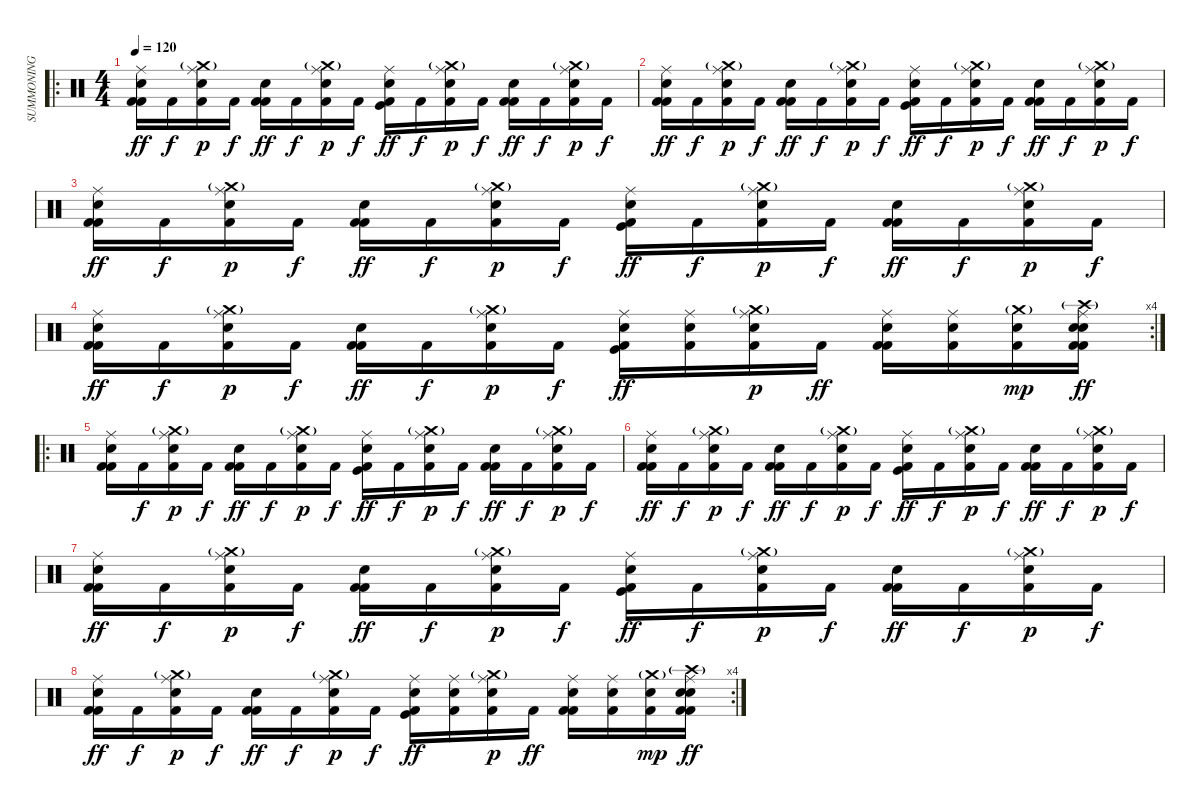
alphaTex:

\track ("SUMMONING" "SUMMONING") {instrument percussion}
\staff {score}
\articulation defaults
\ro
\ts (4 4)
\tempo 120
\clef neutral
\ks c
("Electric Snare (hit)" "Ride (middle)" "Kick (hit) 2" "Kick (hit) 2").16{dy ff} "Kick (hit) 2".16{dy f} ("Snare (hit) 2" "Crash medium (hit)"{g} "Ride (middle)" "Kick (hit) 2").16{dy p} "Kick (hit) 2".16{dy f} ("Electric Snare (hit)" "Kick (hit) 2" "Kick (hit) 2").16{dy ff} "Kick (hit) 2".16{dy f} ("Snare (hit) 2" "Crash medium (hit)"{g} "Ride (middle)" "Kick (hit) 2").16{dy p} "Kick (hit) 2".16{dy f} ("Electric Snare (hit)" "Ride (middle)" "Kick (hit)" "Kick (hit) 2").16{dy ff} "Kick (hit) 2".16{dy f} ("Snare (hit) 2" "Crash medium (hit)"{g} "Ride (middle)" "Kick (hit) 2").16{dy p} "Kick (hit) 2".16{dy f} ("Electric Snare (hit)" "Kick (hit) 2" "Kick (hit) 2").16{dy ff} "Kick (hit) 2".16{dy f} ("Snare (hit) 2" "Crash medium (hit)"{g} "Ride (middle)" "Kick (hit) 2").16{dy p} "Kick (hit) 2".16{dy f} |
("Electric Snare (hit)" "Ride (middle)" "Kick (hit) 2" "Kick (hit) 2").16{dy ff} "Kick (hit) 2".16{dy f} ("Snare (hit) 2" "Crash medium (hit)"{g} "Ride (middle)" "Kick (hit) 2").16{dy p} "Kick (hit) 2".16{dy f} ("Electric Snare (hit)" "Kick (hit) 2" "Kick (hit) 2").16{dy ff} "Kick (hit) 2".16{dy f} ("Snare (hit) 2" "Crash medium (hit)"{g} "Ride (middle)" "Kick (hit) 2").16{dy p} "Kick (hit) 2".16{dy f} ("Electric Snare (hit)" "Ride (middle)" "Kick (hit)" "Kick (hit) 2").16{dy ff} "Kick (hit) 2".16{dy f} ("Snare (hit) 2" "Crash medium (hit)"{g} "Ride (middle)" "Kick (hit) 2").16{dy p} "Kick (hit) 2".16{dy f} ("Electric Snare (hit)" "Kick (hit) 2" "Kick (hit) 2").16{dy ff} "Kick (hit) 2".16{dy f} ("Snare (hit) 2" "Crash medium (hit)"{g} "Ride (middle)" "Kick (hit) 2").16{dy p} "Kick (hit) 2".16{dy f} |
("Electric Snare (hit)" "Ride (middle)" "Kick (hit) 2" "Kick (hit) 2").16{dy ff} "Kick (hit) 2".16{dy f} ("Snare (hit) 2" "Crash medium (hit)"{g} "Ride (middle)" "Kick (hit) 2").16{dy p} "Kick (hit) 2".16{dy f} ("Electric Snare (hit)" "Kick (hit) 2" "Kick (hit) 2").16{dy ff} "Kick (hit) 2".16{dy f} ("Snare (hit) 2" "Crash medium (hit)"{g} "Ride (middle)" "Kick (hit) 2").16{dy p} "Kick (hit) 2".16{dy f} ("Electric Snare (hit)" "Ride (middle)" "Kick (hit)" "Kick (hit) 2").16{dy ff} "Kick (hit) 2".16{dy f} ("Snare (hit) 2" "Crash medium (hit)"{g} "Ride (middle)" "Kick (hit) 2").16{dy p} "Kick (hit) 2".16{dy f} ("Electric Snare (hit)" "Kick (hit) 2" "Kick (hit) 2").16{dy ff} "Kick (hit) 2".16{dy f} ("Snare (hit) 2" "Crash medium (hit)"{g} "Ride (middle)" "Kick (hit) 2").16{dy p} "Kick (hit) 2".16{dy f} |
\rc 4
("Electric Snare (hit)" "Ride (middle)" "Kick (hit) 2" "Kick (hit) 2").16{dy ff} "Kick (hit) 2".16{dy f} ("Snare (hit) 2" "Crash medium (hit)"{g} "Ride (middle)" "Kick (hit) 2").16{dy p} "Kick (hit) 2".16{dy f} ("Electric Snare (hit)" "Kick (hit) 2" "Kick (hit) 2").16{dy ff} "Kick (hit) 2".16{dy f} ("Snare (hit) 2" "Crash medium (hit)"{g} "Ride (middle)" "Kick (hit) 2").16{dy p} "Kick (hit) 2".16{dy f} ("Electric Snare (hit)" "Ride (middle)" "Kick (hit)" "Kick (hit) 2").16{dy ff} ("Electric Snare (hit)" "Ride (middle)" "Kick (hit) 2").16 ("Snare (hit) 2" "Crash medium (hit)"{g} "Ride (middle)" "Kick (hit) 2").16{dy p} "Kick (hit) 2".16{dy ff} ("Electric Snare (hit)" "Ride (middle)" "Kick (hit) 2" "Kick (hit) 2").16 ("Electric Snare (hit)" "Ride (middle)" "Kick (hit) 2").16 ("Snare (hit) 2" "Crash medium (hit)"{g} "Kick (hit) 2").16{dy mp} ("Snare (hit) 2" "Crash high (hit)"{g} "Electric Snare (hit)" "Ride (middle)" "Kick (hit) 2" "Kick (hit) 2").16{dy ff} |
\ro
("Electric Snare (hit)" "Ride (middle)" "Kick (hit) 2" "Kick (hit) 2").16 "Kick (hit) 2".16{dy f} ("Snare (hit) 2" "Crash medium (hit)"{g} "Ride (middle)" "Kick (hit) 2").16{dy p} "Kick (hit) 2".16{dy f} ("Electric Snare (hit)" "Kick (hit) 2" "Kick (hit) 2").16{dy ff} "Kick (hit) 2".16{dy f} ("Snare (hit) 2" "Crash medium (hit)"{g} "Ride (middle)" "Kick (hit) 2").16{dy p} "Kick (hit) 2".16{dy f} ("Electric Snare (hit)" "Ride (middle)" "Kick (hit)" "Kick (hit) 2").16{dy ff} "Kick (hit) 2".16{dy f} ("Snare (hit) 2" "Crash medium (hit)"{g} "Ride (middle)" "Kick (hit) 2").16{dy p} "Kick (hit) 2".16{dy f} ("Electric Snare (hit)" "Kick (hit) 2" "Kick (hit) 2").16{dy ff} "Kick (hit) 2".16{dy f} ("Snare (hit) 2" "Crash medium (hit)"{g} "Ride (middle)" "Kick (hit) 2").16{dy p} "Kick (hit) 2".16{dy f} |
("Electric Snare (hit)" "Ride (middle)" "Kick (hit) 2" "Kick (hit) 2").16{dy ff} "Kick (hit) 2".16{dy f} ("Snare (hit) 2" "Crash medium (hit)"{g} "Ride (middle)" "Kick (hit) 2").16{dy p} "Kick (hit) 2".16{dy f} ("Electric Snare (hit)" "Kick (hit) 2" "Kick (hit) 2").16{dy ff} "Kick (hit) 2".16{dy f} ("Snare (hit) 2" "Crash medium (hit)"{g} "Ride (middle)" "Kick (hit) 2").16{dy p} "Kick (hit) 2".16{dy f} ("Electric Snare (hit)" "Ride (middle)" "Kick (hit)" "Kick (hit) 2").16{dy ff} "Kick (hit) 2".16{dy f} ("Snare (hit) 2" "Crash medium (hit)"{g} "Ride (middle)" "Kick (hit) 2").16{dy p} "Kick (hit) 2".16{dy f} ("Electric Snare (hit)" "Kick (hit) 2" "Kick (hit) 2").16{dy ff} "Kick (hit) 2".16{dy f} ("Snare (hit) 2" "Crash medium (hit)"{g} "Ride (middle)" "Kick (hit) 2").16{dy p} "Kick (hit) 2".16{dy f} |
("Electric Snare (hit)" "Ride (middle)" "Kick (hit) 2" "Kick (hit) 2").16{dy ff} "Kick (hit) 2".16{dy f} ("Snare (hit) 2" "Crash medium (hit)"{g} "Ride (middle)" "Kick (hit) 2").16{dy p} "Kick (hit) 2".16{dy f} ("Electric Snare (hit)" "Kick (hit) 2" "Kick (hit) 2").16{dy ff} "Kick (hit) 2".16{dy f} ("Snare (hit) 2" "Crash medium (hit)"{g} "Ride (middle)" "Kick (hit) 2").16{dy p} "Kick (hit) 2".16{dy f} ("Electric Snare (hit)" "Ride (middle)" "Kick (hit)" "Kick (hit) 2").16{dy ff} "Kick (hit) 2".16{dy f} ("Snare (hit) 2" "Crash medium (hit)"{g} "Ride (middle)" "Kick (hit) 2").16{dy p} "Kick (hit) 2".16{dy f} ("Electric Snare (hit)" "Kick (hit) 2" "Kick (hit) 2").16{dy ff} "Kick (hit) 2".16{dy f} ("Snare (hit) 2" "Crash medium (hit)"{g} "Ride (middle)" "Kick (hit) 2").16{dy p} "Kick (hit) 2".16{dy f} |
\rc 4
("Electric Snare (hit)" "Ride (middle)" "Kick (hit) 2" "Kick (hit) 2").16{dy ff} "Kick (hit) 2".16{dy f} ("Snare (hit) 2" "Crash medium (hit)"{g} "Ride (middle)" "Kick (hit) 2").16{dy p} "Kick (hit) 2".16{dy f} ("Electric Snare (hit)" "Kick (hit) 2" "Kick (hit) 2").16{dy ff} "Kick (hit) 2".16{dy f} ("Snare (hit) 2" "Crash medium (hit)"{g} "Ride (middle)" "Kick (hit) 2").16{dy p} "Kick (hit) 2".16{dy f} ("Electric Snare (hit)" "Ride (middle)" "Kick (hit)" "Kick (hit) 2").16{dy ff} ("Electric Snare (hit)" "Ride (middle)" "Kick (hit) 2").16 ("Snare (hit) 2" "Crash medium (hit)"{g} "Ride (middle)" "Kick (hit) 2").16{dy p} "Kick (hit) 2".16{dy ff} ("Electric Snare (hit)" "Ride (middle)" "Kick (hit) 2" "Kick (hit) 2").16 ("Electric Snare (hit)" "Ride (middle)" "Kick (hit) 2").16 ("Snare (hit) 2" "Crash medium (hit)"{g} "Kick (hit) 2").16{dy mp} ("Snare (hit) 2" "Crash high (hit)"{g} "Electric Snare (hit)" "Ride (middle)" "Kick (hit) 2" "Kick (hit) 2").16{dy ff}
